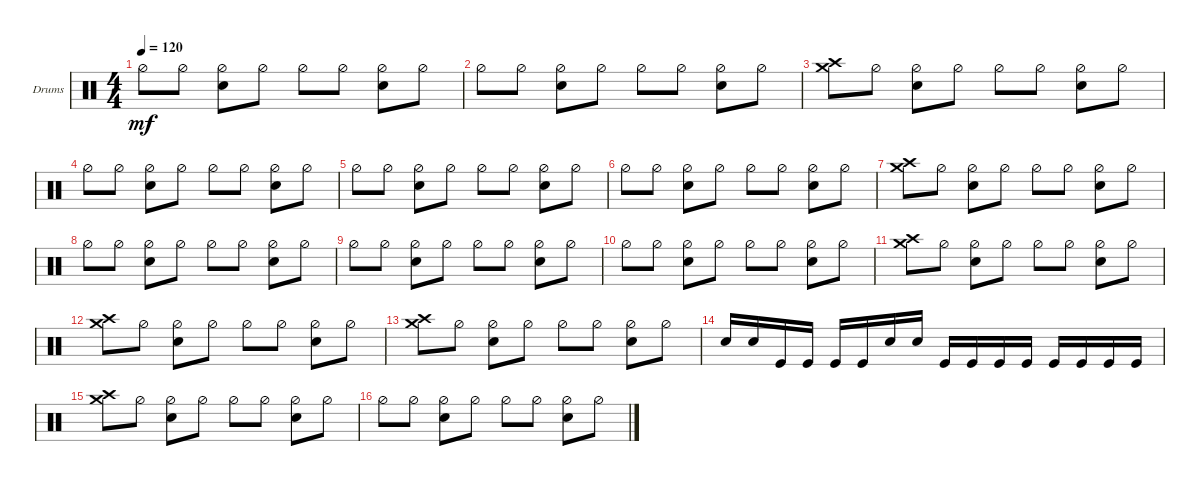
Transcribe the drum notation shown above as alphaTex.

\defaultSystemsLayout 4
\bracketExtendMode groupsimilarinstruments
\firstSystemTrackNameOrientation horizontal
\otherSystemsTrackNameOrientation horizontal
\track ("Drums" "Drums") {instrument percussion}
\staff {score}
\articulation defaults
\ts (4 4)
\tempo 120
\clef neutral
\ks c "Hi-Hat (half)".8{dy mf} "Hi-Hat (half)".8
("Snare (hit) 2" "Hi-Hat (half)").8 "Hi-Hat (half)".8 "Hi-Hat (half)".8 "Hi-Hat (half)".8 ("Snare (hit) 2" "Hi-Hat (half)").8 "Hi-Hat (half)".8 |
"Hi-Hat (half)".8 "Hi-Hat (half)".8 ("Snare (hit) 2" "Hi-Hat (half)").8 "Hi-Hat (half)".8 "Hi-Hat (half)".8 "Hi-Hat (half)".8 ("Snare (hit) 2" "Hi-Hat (half)").8 "Hi-Hat (half)".8 |
("Crash medium (hit)" "Crash high (hit)").8 "Hi-Hat (half)".8 ("Snare (hit) 2" "Hi-Hat (half)").8 "Hi-Hat (half)".8 "Hi-Hat (half)".8 "Hi-Hat (half)".8 ("Snare (hit) 2" "Hi-Hat (half)").8 "Hi-Hat (half)".8 |
"Hi-Hat (half)".8 "Hi-Hat (half)".8 ("Snare (hit) 2" "Hi-Hat (half)").8 "Hi-Hat (half)".8 "Hi-Hat (half)".8 "Hi-Hat (half)".8 ("Snare (hit) 2" "Hi-Hat (half)").8 "Hi-Hat (half)".8 |
"Hi-Hat (half)".8 "Hi-Hat (half)".8 ("Snare (hit) 2" "Hi-Hat (half)").8 "Hi-Hat (half)".8 "Hi-Hat (half)".8 "Hi-Hat (half)".8 ("Snare (hit) 2" "Hi-Hat (half)").8 "Hi-Hat (half)".8 |
"Hi-Hat (half)".8 "Hi-Hat (half)".8 ("Snare (hit) 2" "Hi-Hat (half)").8 "Hi-Hat (half)".8 "Hi-Hat (half)".8 "Hi-Hat (half)".8 ("Snare (hit) 2" "Hi-Hat (half)").8 "Hi-Hat (half)".8 |
("Crash medium (hit)" "Crash high (hit)").8 "Hi-Hat (half)".8 ("Snare (hit) 2" "Hi-Hat (half)").8 "Hi-Hat (half)".8 "Hi-Hat (half)".8 "Hi-Hat (half)".8 ("Snare (hit) 2" "Hi-Hat (half)").8 "Hi-Hat (half)".8 |
"Hi-Hat (half)".8 "Hi-Hat (half)".8 ("Snare (hit) 2" "Hi-Hat (half)").8 "Hi-Hat (half)".8 "Hi-Hat (half)".8 "Hi-Hat (half)".8 ("Snare (hit) 2" "Hi-Hat (half)").8 "Hi-Hat (half)".8 |
"Hi-Hat (half)".8 "Hi-Hat (half)".8 ("Snare (hit) 2" "Hi-Hat (half)").8 "Hi-Hat (half)".8 "Hi-Hat (half)".8 "Hi-Hat (half)".8 ("Snare (hit) 2" "Hi-Hat (half)").8 "Hi-Hat (half)".8 |
"Hi-Hat (half)".8 "Hi-Hat (half)".8 ("Snare (hit) 2" "Hi-Hat (half)").8 "Hi-Hat (half)".8 "Hi-Hat (half)".8 "Hi-Hat (half)".8 ("Snare (hit) 2" "Hi-Hat (half)").8 "Hi-Hat (half)".8 |
("Crash high (hit)" "Crash medium (hit)").8 "Hi-Hat (half)".8 ("Snare (hit) 2" "Hi-Hat (half)").8 "Hi-Hat (half)".8 "Hi-Hat (half)".8 "Hi-Hat (half)".8 ("Snare (hit) 2" "Hi-Hat (half)").8 "Hi-Hat (half)".8 |
("Crash medium (hit)" "Crash high (hit)").8 "Hi-Hat (half)".8 ("Snare (hit) 2" "Hi-Hat (half)").8 "Hi-Hat (half)".8 "Hi-Hat (half)".8 "Hi-Hat (half)".8 ("Snare (hit) 2" "Hi-Hat (half)").8 "Hi-Hat (half)".8 |
("Crash medium (hit)" "Crash high (hit)").8 "Hi-Hat (half)".8 ("Snare (hit) 2" "Hi-Hat (half)").8 "Hi-Hat (half)".8 "Hi-Hat (half)".8 "Hi-Hat (half)".8 ("Snare (hit) 2" "Hi-Hat (half)").8 "Hi-Hat (half)".8 |
"Snare (hit) 2".16 "Snare (hit) 2".16 "Kick (hit)".16 "Kick (hit)".16 "Kick (hit)".16 "Kick (hit)".16 "Snare (hit) 2".16 "Snare (hit) 2".16 "Kick (hit)".16 "Kick (hit)".16 "Kick (hit)".16 "Kick (hit)".16 "Kick (hit)".16 "Kick (hit)".16 "Kick (hit)".16 "Kick (hit)".16 |
("Crash medium (hit)" "Crash high (hit)").8 "Hi-Hat (half)".8 ("Snare (hit) 2" "Hi-Hat (half)").8 "Hi-Hat (half)".8 "Hi-Hat (half)".8 "Hi-Hat (half)".8 ("Snare (hit) 2" "Hi-Hat (half)").8 "Hi-Hat (half)".8 |
"Hi-Hat (half)".8 "Hi-Hat (half)".8 ("Snare (hit) 2" "Hi-Hat (half)").8 "Hi-Hat (half)".8 "Hi-Hat (half)".8 "Hi-Hat (half)".8 ("Snare (hit) 2" "Hi-Hat (half)").8 "Hi-Hat (half)".8
